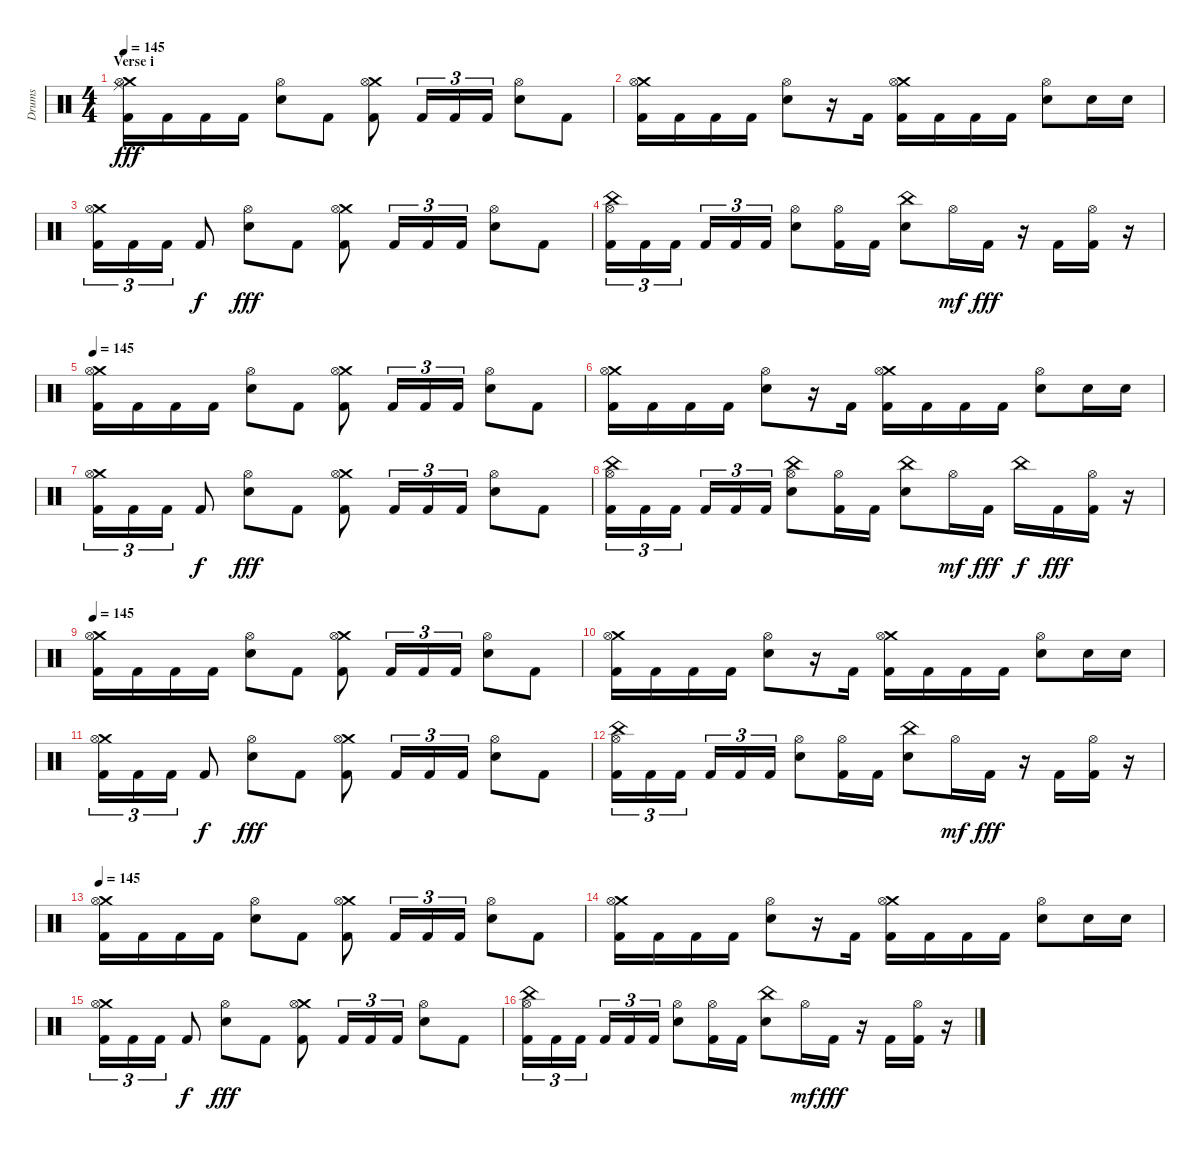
\track ("Drums" "Drums") {instrument percussion}
\staff {score}
\articulation defaults
\ts (4 4)
\section ("" "Verse i")
\tempo 145
\clef neutral
\ks c
("Ride (middle)" "Crash medium (hit)" "Hi-Hat (open)" "Kick (hit) 2").16{dy fff} "Kick (hit) 2".16 "Kick (hit) 2".16 "Kick (hit) 2".16 ("Hi-Hat (open)" "Snare (hit) 2").8 "Kick (hit) 2".8 ("Crash medium (hit)" "Hi-Hat (open)" "Kick (hit) 2").8 "Kick (hit) 2".16{tu (3 2)} "Kick (hit) 2".16{tu (3 2)} "Kick (hit) 2".16{tu (3 2)} ("Hi-Hat (open)" "Snare (hit) 2").8 "Kick (hit) 2".8 |
("Crash medium (hit)" "Hi-Hat (open)" "Kick (hit) 2").16 "Kick (hit) 2".16 "Kick (hit) 2".16 "Kick (hit) 2".16 ("Hi-Hat (open)" "Snare (hit) 2").8 r.16 "Kick (hit) 2".16 ("Crash medium (hit)" "Hi-Hat (open)" "Kick (hit) 2").16 "Kick (hit) 2".16 "Kick (hit) 2".16 "Kick (hit) 2".16 ("Hi-Hat (open)" "Snare (hit) 2").8 "Snare (hit) 2".16 "Snare (hit) 2".16 |
("Crash medium (hit)" "Hi-Hat (open)" "Kick (hit) 2").16{tu (3 2)} "Kick (hit) 2".16{tu (3 2)} "Kick (hit) 2".16{tu (3 2)} "Kick (hit) 2".8{dy f} ("Hi-Hat (open)" "Snare (hit) 2").8{dy fff} "Kick (hit) 2".8 ("Crash medium (hit)" "Hi-Hat (open)" "Kick (hit) 2").8 "Kick (hit) 2".16{tu (3 2)} "Kick (hit) 2".16{tu (3 2)} "Kick (hit) 2".16{tu (3 2)} ("Hi-Hat (open)" "Snare (hit) 2").8 "Kick (hit) 2".8 |
("China (hit)" "Hi-Hat (open)" "Kick (hit) 2").16{tu (3 2)} "Kick (hit) 2".16{tu (3 2)} "Kick (hit) 2".16{tu (3 2)} "Kick (hit) 2".16{tu (3 2)} "Kick (hit) 2".16{tu (3 2)} "Kick (hit) 2".16{tu (3 2)} ("Hi-Hat (open)" "Snare (hit) 2").8 ("Hi-Hat (open)" "Kick (hit) 2").16 "Kick (hit) 2".16 ("China (hit)" "Snare (hit) 2").8 "Hi-Hat (open)".16{dy mf} "Kick (hit) 2".16{dy fff} r.16 "Kick (hit) 2".16 ("Hi-Hat (open)" "Kick (hit) 2").16 r.16 |
\tempo 145
("Crash medium (hit)" "Hi-Hat (open)" "Kick (hit) 2").16 "Kick (hit) 2".16 "Kick (hit) 2".16 "Kick (hit) 2".16 ("Hi-Hat (open)" "Snare (hit) 2").8 "Kick (hit) 2".8 ("Crash medium (hit)" "Hi-Hat (open)" "Kick (hit) 2").8 "Kick (hit) 2".16{tu (3 2)} "Kick (hit) 2".16{tu (3 2)} "Kick (hit) 2".16{tu (3 2)} ("Hi-Hat (open)" "Snare (hit) 2").8 "Kick (hit) 2".8 |
("Crash medium (hit)" "Hi-Hat (open)" "Kick (hit) 2").16 "Kick (hit) 2".16 "Kick (hit) 2".16 "Kick (hit) 2".16 ("Hi-Hat (open)" "Snare (hit) 2").8 r.16 "Kick (hit) 2".16 ("Crash medium (hit)" "Hi-Hat (open)" "Kick (hit) 2").16 "Kick (hit) 2".16 "Kick (hit) 2".16 "Kick (hit) 2".16 ("Hi-Hat (open)" "Snare (hit) 2").8 "Snare (hit) 2".16 "Snare (hit) 2".16 |
("Crash medium (hit)" "Hi-Hat (open)" "Kick (hit) 2").16{tu (3 2)} "Kick (hit) 2".16{tu (3 2)} "Kick (hit) 2".16{tu (3 2)} "Kick (hit) 2".8{dy f} ("Hi-Hat (open)" "Snare (hit) 2").8{dy fff} "Kick (hit) 2".8 ("Crash medium (hit)" "Hi-Hat (open)" "Kick (hit) 2").8 "Kick (hit) 2".16{tu (3 2)} "Kick (hit) 2".16{tu (3 2)} "Kick (hit) 2".16{tu (3 2)} ("Hi-Hat (open)" "Snare (hit) 2").8 "Kick (hit) 2".8 |
("China (hit)" "Hi-Hat (open)" "Kick (hit) 2").16{tu (3 2)} "Kick (hit) 2".16{tu (3 2)} "Kick (hit) 2".16{tu (3 2)} "Kick (hit) 2".16{tu (3 2)} "Kick (hit) 2".16{tu (3 2)} "Kick (hit) 2".16{tu (3 2)} ("China (hit)" "Hi-Hat (open)" "Snare (hit) 2").8 ("Hi-Hat (open)" "Kick (hit) 2").16 "Kick (hit) 2".16 ("China (hit)" "Snare (hit) 2").8 "Hi-Hat (open)".16{dy mf} "Kick (hit) 2".16{dy fff} "China (hit)".16{dy f} "Kick (hit) 2".16{dy fff} ("Hi-Hat (open)" "Kick (hit) 2").16 r.16 |
\tempo 145
("Crash medium (hit)" "Hi-Hat (open)" "Kick (hit) 2").16 "Kick (hit) 2".16 "Kick (hit) 2".16 "Kick (hit) 2".16 ("Hi-Hat (open)" "Snare (hit) 2").8 "Kick (hit) 2".8 ("Crash medium (hit)" "Hi-Hat (open)" "Kick (hit) 2").8 "Kick (hit) 2".16{tu (3 2)} "Kick (hit) 2".16{tu (3 2)} "Kick (hit) 2".16{tu (3 2)} ("Hi-Hat (open)" "Snare (hit) 2").8 "Kick (hit) 2".8 |
("Crash medium (hit)" "Hi-Hat (open)" "Kick (hit) 2").16 "Kick (hit) 2".16 "Kick (hit) 2".16 "Kick (hit) 2".16 ("Hi-Hat (open)" "Snare (hit) 2").8 r.16 "Kick (hit) 2".16 ("Crash medium (hit)" "Hi-Hat (open)" "Kick (hit) 2").16 "Kick (hit) 2".16 "Kick (hit) 2".16 "Kick (hit) 2".16 ("Hi-Hat (open)" "Snare (hit) 2").8 "Snare (hit) 2".16 "Snare (hit) 2".16 |
("Crash medium (hit)" "Hi-Hat (open)" "Kick (hit) 2").16{tu (3 2)} "Kick (hit) 2".16{tu (3 2)} "Kick (hit) 2".16{tu (3 2)} "Kick (hit) 2".8{dy f} ("Hi-Hat (open)" "Snare (hit) 2").8{dy fff} "Kick (hit) 2".8 ("Crash medium (hit)" "Hi-Hat (open)" "Kick (hit) 2").8 "Kick (hit) 2".16{tu (3 2)} "Kick (hit) 2".16{tu (3 2)} "Kick (hit) 2".16{tu (3 2)} ("Hi-Hat (open)" "Snare (hit) 2").8 "Kick (hit) 2".8 |
("China (hit)" "Hi-Hat (open)" "Kick (hit) 2").16{tu (3 2)} "Kick (hit) 2".16{tu (3 2)} "Kick (hit) 2".16{tu (3 2)} "Kick (hit) 2".16{tu (3 2)} "Kick (hit) 2".16{tu (3 2)} "Kick (hit) 2".16{tu (3 2)} ("Hi-Hat (open)" "Snare (hit) 2").8 ("Hi-Hat (open)" "Kick (hit) 2").16 "Kick (hit) 2".16 ("China (hit)" "Snare (hit) 2").8 "Hi-Hat (open)".16{dy mf} "Kick (hit) 2".16{dy fff} r.16 "Kick (hit) 2".16 ("Hi-Hat (open)" "Kick (hit) 2").16 r.16 |
\tempo 145
("Crash medium (hit)" "Hi-Hat (open)" "Kick (hit) 2").16 "Kick (hit) 2".16 "Kick (hit) 2".16 "Kick (hit) 2".16 ("Hi-Hat (open)" "Snare (hit) 2").8 "Kick (hit) 2".8 ("Crash medium (hit)" "Hi-Hat (open)" "Kick (hit) 2").8 "Kick (hit) 2".16{tu (3 2)} "Kick (hit) 2".16{tu (3 2)} "Kick (hit) 2".16{tu (3 2)} ("Hi-Hat (open)" "Snare (hit) 2").8 "Kick (hit) 2".8 |
("Crash medium (hit)" "Hi-Hat (open)" "Kick (hit) 2").16 "Kick (hit) 2".16 "Kick (hit) 2".16 "Kick (hit) 2".16 ("Hi-Hat (open)" "Snare (hit) 2").8 r.16 "Kick (hit) 2".16 ("Crash medium (hit)" "Hi-Hat (open)" "Kick (hit) 2").16 "Kick (hit) 2".16 "Kick (hit) 2".16 "Kick (hit) 2".16 ("Hi-Hat (open)" "Snare (hit) 2").8 "Snare (hit) 2".16 "Snare (hit) 2".16 |
("Crash medium (hit)" "Hi-Hat (open)" "Kick (hit) 2").16{tu (3 2)} "Kick (hit) 2".16{tu (3 2)} "Kick (hit) 2".16{tu (3 2)} "Kick (hit) 2".8{dy f} ("Hi-Hat (open)" "Snare (hit) 2").8{dy fff} "Kick (hit) 2".8 ("Crash medium (hit)" "Hi-Hat (open)" "Kick (hit) 2").8 "Kick (hit) 2".16{tu (3 2)} "Kick (hit) 2".16{tu (3 2)} "Kick (hit) 2".16{tu (3 2)} ("Hi-Hat (open)" "Snare (hit) 2").8 "Kick (hit) 2".8 |
("China (hit)" "Hi-Hat (open)" "Kick (hit) 2").16{tu (3 2)} "Kick (hit) 2".16{tu (3 2)} "Kick (hit) 2".16{tu (3 2)} "Kick (hit) 2".16{tu (3 2)} "Kick (hit) 2".16{tu (3 2)} "Kick (hit) 2".16{tu (3 2)} ("Hi-Hat (open)" "Snare (hit) 2").8 ("Hi-Hat (open)" "Kick (hit) 2").16 "Kick (hit) 2".16 ("China (hit)" "Snare (hit) 2").8 "Hi-Hat (open)".16{dy mf} "Kick (hit) 2".16{dy fff} r.16 "Kick (hit) 2".16 ("Hi-Hat (open)" "Kick (hit) 2").16 r.16
